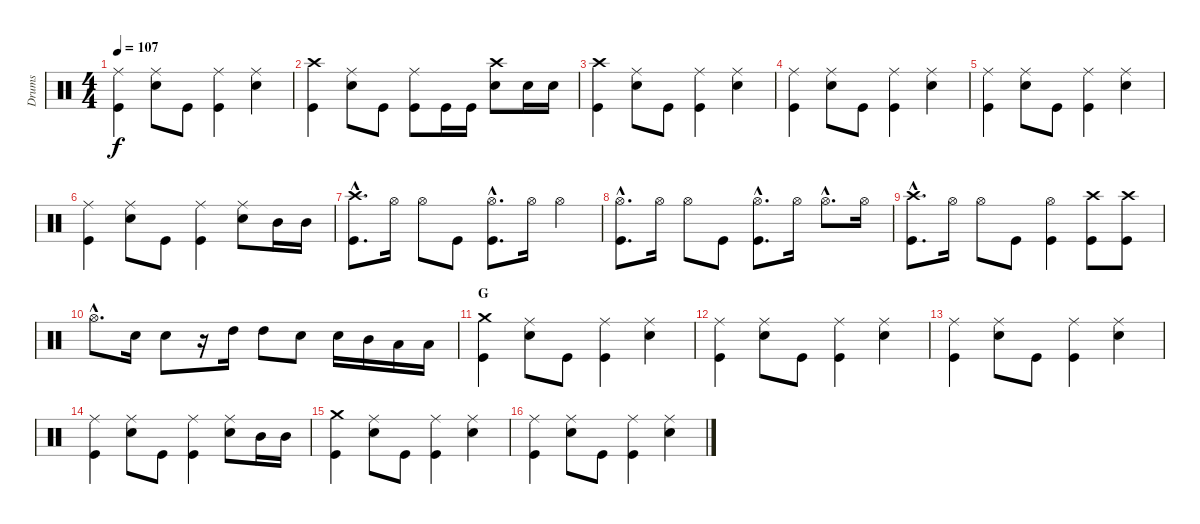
\track ("Drums" "Drums") {instrument percussion}
\staff {score}
\articulation defaults
\ts (4 4)
\tempo 107
\clef neutral
\ks c
("Ride (middle)" "Kick (hit)").4{dy f} ("Ride (middle)" "Snare (hit) 2").8 "Kick (hit)".8 ("Ride (middle)" "Kick (hit)").4 ("Ride (middle)" "Snare (hit) 2").4 |
("Crash high (hit)" "Kick (hit)").4 ("Ride (middle)" "Snare (hit) 2").8 "Kick (hit)".8 ("Ride (middle)" "Kick (hit)").8 "Kick (hit)".16 "Kick (hit)".16 ("Crash high (hit)" "Snare (hit) 2").8 "Snare (hit) 2".16 "Snare (hit) 2".16 |
("Crash high (hit)" "Kick (hit)").4 ("Ride (middle)" "Snare (hit) 2").8 "Kick (hit)".8 ("Ride (middle)" "Kick (hit)").4 ("Ride (middle)" "Snare (hit) 2").4 |
("Ride (middle)" "Kick (hit)").4 ("Ride (middle)" "Snare (hit) 2").8 "Kick (hit)".8 ("Ride (middle)" "Kick (hit)").4 ("Ride (middle)" "Snare (hit) 2").4 |
("Ride (middle)" "Kick (hit)").4 ("Ride (middle)" "Snare (hit) 2").8 "Kick (hit)".8 ("Ride (middle)" "Kick (hit)").4 ("Ride (middle)" "Snare (hit) 2").4 |
("Ride (middle)" "Kick (hit)").4 ("Ride (middle)" "Snare (hit) 2").8 "Kick (hit)".8 ("Ride (middle)" "Kick (hit)").4 ("Ride (middle)" "Snare (hit) 2").8 "Mid Tom (hit)".16 "Mid Tom (hit)".16 |
("Crash high (hit)"{hac} "Kick (hit)"{hac}).8{d} "Hi-Hat (open)".16 "Hi-Hat (open)".8 "Kick (hit)".8 ("Hi-Hat (open)"{hac} "Kick (hit)"{hac}).8{d} "Hi-Hat (open)".16 "Hi-Hat (open)".4 |
("Hi-Hat (open)"{hac} "Kick (hit)"{hac}).8{d} "Hi-Hat (open)".16 "Hi-Hat (open)".8 "Kick (hit)".8 ("Hi-Hat (open)"{hac} "Kick (hit)"{hac}).8{d} "Hi-Hat (open)".16 "Hi-Hat (open)"{hac}.8{d} "Hi-Hat (open)".16 |
("Crash high (hit)"{hac} "Kick (hit)"{hac}).8{d} "Hi-Hat (open)".16 "Hi-Hat (open)".8 "Kick (hit)".8 ("Hi-Hat (open)" "Kick (hit)").4 ("Crash high (hit)" "Kick (hit)").8 ("Crash high (hit)" "Kick (hit)").8 |
"Hi-Hat (open)"{hac}.8{d} "Snare (hit) 2".16 "Snare (hit) 2".8 r.16 "High Tom (hit)".16 "High Tom (hit)".8 "Snare (hit) 2".8 "Snare (hit) 2".16 "Mid Tom (hit)".16 "Low Tom (hit)".16 "Low Tom (hit)".16 |
\section ("" "G")
("Crash medium (hit)" "Kick (hit)").4 ("Ride (middle)" "Snare (hit) 2").8 "Kick (hit)".8 ("Ride (middle)" "Kick (hit)").4 ("Ride (middle)" "Snare (hit) 2").4 |
("Ride (middle)" "Kick (hit)").4 ("Ride (middle)" "Snare (hit) 2").8 "Kick (hit)".8 ("Ride (middle)" "Kick (hit)").4 ("Ride (middle)" "Snare (hit) 2").4 |
("Ride (middle)" "Kick (hit)").4 ("Ride (middle)" "Snare (hit) 2").8 "Kick (hit)".8 ("Ride (middle)" "Kick (hit)").4 ("Ride (middle)" "Snare (hit) 2").4 |
("Ride (middle)" "Kick (hit)").4 ("Ride (middle)" "Snare (hit) 2").8 "Kick (hit)".8 ("Ride (middle)" "Kick (hit)").4 ("Ride (middle)" "Snare (hit) 2").8 "Mid Tom (hit)".16 "Mid Tom (hit)".16 |
("Crash medium (hit)" "Kick (hit)").4 ("Ride (middle)" "Snare (hit) 2").8 "Kick (hit)".8 ("Ride (middle)" "Kick (hit)").4 ("Ride (middle)" "Snare (hit) 2").4 |
("Ride (middle)" "Kick (hit)").4 ("Ride (middle)" "Snare (hit) 2").8 "Kick (hit)".8 ("Ride (middle)" "Kick (hit)").4 ("Ride (middle)" "Snare (hit) 2").4
